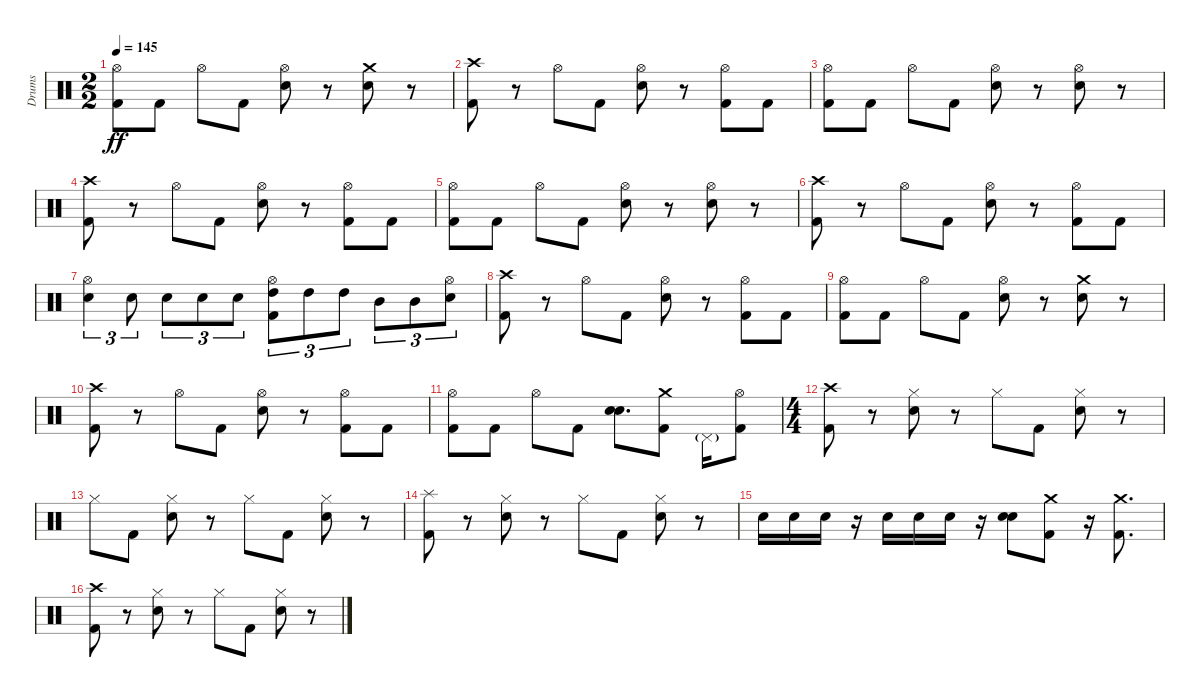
\track ("Drums" "Drums") {instrument percussion}
\staff {score}
\articulation defaults
\ts (2 2)
\tempo 145
\clef neutral
\ks c
("Hi-Hat (open)" "Kick (hit) 2").8{dy ff} "Kick (hit) 2".8 "Hi-Hat (open)".8 "Kick (hit) 2".8 ("Hi-Hat (open)" "Snare (hit) 2").8 r.8 ("Crash medium (hit)" "Snare (hit) 2").8 r.8 |
("Crash high (hit)" "Kick (hit) 2").8 r.8 "Hi-Hat (open)".8 "Kick (hit) 2".8 ("Hi-Hat (open)" "Snare (hit) 2").8 r.8 ("Hi-Hat (open)" "Kick (hit) 2").8 "Kick (hit) 2".8 |
("Hi-Hat (open)" "Kick (hit) 2").8 "Kick (hit) 2".8 "Hi-Hat (open)".8 "Kick (hit) 2".8 ("Hi-Hat (open)" "Snare (hit) 2").8 r.8 ("Hi-Hat (open)" "Snare (hit) 2").8 r.8 |
("Crash high (hit)" "Kick (hit) 2").8 r.8 "Hi-Hat (open)".8 "Kick (hit) 2".8 ("Hi-Hat (open)" "Snare (hit) 2").8 r.8 ("Hi-Hat (open)" "Kick (hit) 2").8 "Kick (hit) 2".8 |
("Hi-Hat (open)" "Kick (hit) 2").8 "Kick (hit) 2".8 "Hi-Hat (open)".8 "Kick (hit) 2".8 ("Hi-Hat (open)" "Snare (hit) 2").8 r.8 ("Hi-Hat (open)" "Snare (hit) 2").8 r.8 |
("Crash high (hit)" "Kick (hit) 2").8 r.8 "Hi-Hat (open)".8 "Kick (hit) 2".8 ("Hi-Hat (open)" "Snare (hit) 2").8 r.8 ("Hi-Hat (open)" "Kick (hit) 2").8 "Kick (hit) 2".8 |
("Hi-Hat (open)" "Snare (hit) 2").4{tu (3 2)} "Snare (hit) 2".8{tu (3 2)} "Snare (hit) 2".8{tu (3 2)} "Snare (hit) 2".8{tu (3 2)} "Snare (hit) 2".8{tu (3 2)} ("Hi-Hat (open)" "High Tom (hit)" "Kick (hit) 2").8{tu (3 2)} "High Tom (hit)".8{tu (3 2)} "High Tom (hit)".8{tu (3 2)} "Mid Tom (hit)".8{tu (3 2)} "Mid Tom (hit)".8{tu (3 2)} ("Hi-Hat (open)" "Snare (hit) 2").8{tu (3 2)} |
("Crash high (hit)" "Kick (hit) 2").8 r.8 "Hi-Hat (open)".8 "Kick (hit) 2".8 ("Hi-Hat (open)" "Snare (hit) 2").8 r.8 ("Hi-Hat (open)" "Kick (hit) 2").8 "Kick (hit) 2".8 |
("Hi-Hat (open)" "Kick (hit) 2").8 "Kick (hit) 2".8 "Hi-Hat (open)".8 "Kick (hit) 2".8 ("Hi-Hat (open)" "Snare (hit) 2").8 r.8 ("Crash medium (hit)" "Snare (hit) 2").8 r.8 |
("Crash high (hit)" "Kick (hit) 2").8 r.8 "Hi-Hat (open)".8 "Kick (hit) 2".8 ("Hi-Hat (open)" "Snare (hit) 2").8 r.8 ("Hi-Hat (open)" "Kick (hit) 2").8 "Kick (hit) 2".8 |
("Hi-Hat (open)" "Kick (hit) 2").8 "Kick (hit) 2".8 "Hi-Hat (open)".8 "Kick (hit) 2".8 ("Snare (hit) 2" "Snare (hit) 2").8{d bd 240} ("Crash medium (hit)" "Kick (hit) 2").8 "Pedal Hi-Hat (hit)"{g}.16 ("Hi-Hat (open)" "Kick (hit) 2").8 |
\ts (4 4)
("Crash high (hit)" "Kick (hit) 2").8 r.8 ("Hi-Hat (closed)" "Snare (hit) 2").8 r.8 "Hi-Hat (closed)".8 "Kick (hit) 2".8 ("Hi-Hat (closed)" "Snare (hit) 2").8 r.8 |
"Hi-Hat (closed)".8 "Kick (hit) 2".8 ("Hi-Hat (closed)" "Snare (hit) 2").8 r.8 "Hi-Hat (closed)".8 "Kick (hit) 2".8 ("Hi-Hat (closed)" "Snare (hit) 2").8 r.8 |
("Splash (hit)" "Kick (hit) 2").8 r.8 ("Hi-Hat (closed)" "Snare (hit) 2").8 r.8 "Hi-Hat (closed)".8 "Kick (hit) 2".8 ("Hi-Hat (closed)" "Snare (hit) 2").8 r.8 |
"Snare (hit) 2".16 "Snare (hit) 2".16 "Snare (hit) 2".16 r.16 "Snare (hit) 2".16 "Snare (hit) 2".16 "Snare (hit) 2".16 r.16 ("Snare (hit) 2" "Snare (hit) 2").8{bd 480} ("Crash medium (hit)" "Kick (hit) 2").8 r.16 ("Crash medium (hit)" "Kick (hit) 2").8{d} |
("Crash high (hit)" "Kick (hit) 2").8 r.8 ("Hi-Hat (closed)" "Snare (hit) 2").8 r.8 "Hi-Hat (closed)".8 "Kick (hit) 2".8 ("Hi-Hat (closed)" "Snare (hit) 2").8 r.8
